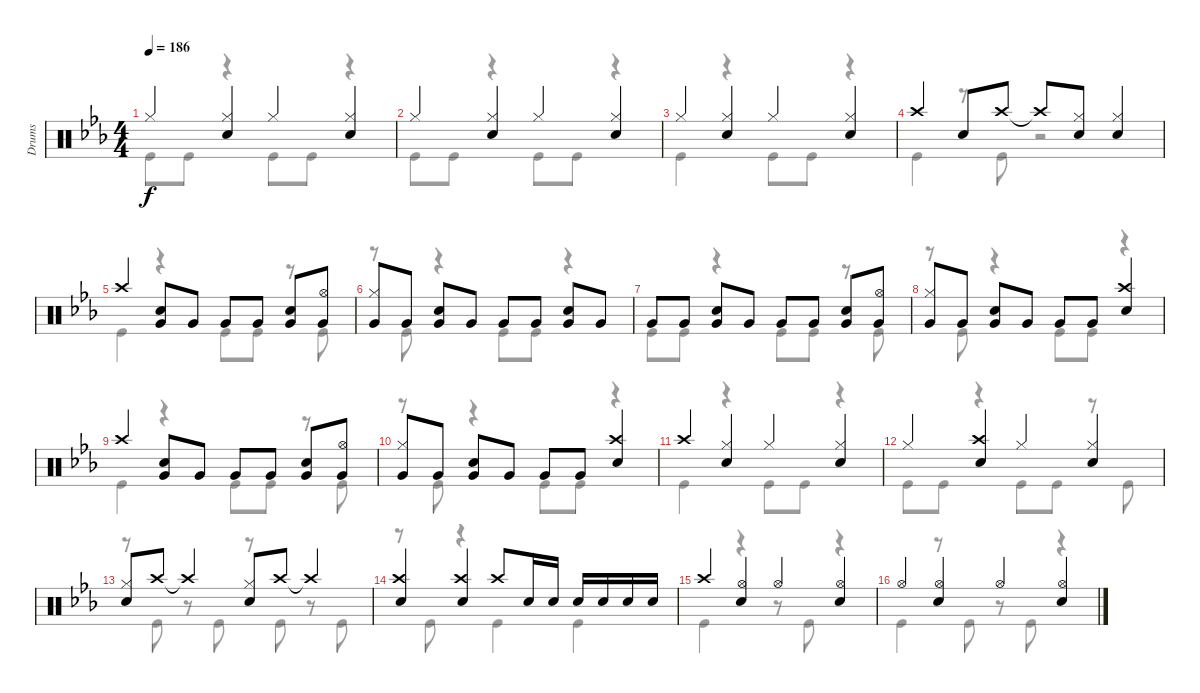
\track ("Drums" "Drums") {instrument percussion}
\staff {score}
\articulation defaults
\voice
\ts (4 4)
\tempo 186
\clef neutral
\ks eb "Hi-Hat (closed)".4{dy f beam Up}
("Hi-Hat (closed)" "Snare (hit) 2").4{beam Up} "Hi-Hat (closed)".4{beam Up} ("Hi-Hat (closed)" "Snare (hit) 2").4{beam Up} |
"Hi-Hat (closed)".4{beam Up} ("Hi-Hat (closed)" "Snare (hit) 2").4{beam Up} "Hi-Hat (closed)".4{beam Up} ("Hi-Hat (closed)" "Snare (hit) 2").4{beam Up} |
"Hi-Hat (closed)".4{beam Up} ("Hi-Hat (closed)" "Snare (hit) 2").4{beam Up} "Hi-Hat (closed)".4{beam Up} ("Hi-Hat (closed)" "Snare (hit) 2").4{beam Up} |
"Crash high (hit)".4{beam Up} "Snare (hit) 2".8{beam Up} "Crash high (hit)".8{beam Up} "Crash high (hit)"{t}.8{beam Up} ("Snare (hit) 2" "Hi-Hat (closed)").8{beam Up} ("Snare (hit) 2" "Hi-Hat (closed)").4{beam Up} |
"Crash high (hit)".4{beam Up} ("Snare (hit) 2" "Very Low Tom (hit)").8{beam Up} "Very Low Tom (hit)".8{beam Up} "Very Low Tom (hit)".8{beam Up} "Very Low Tom (hit)".8{beam Up} ("Very Low Tom (hit)" "Snare (hit) 2").8{beam Up} ("Very Low Tom (hit)" "Hi-Hat (open)").8{beam Up} |
("Hi-Hat (closed)" "Very Low Tom (hit)").8{beam Up} "Very Low Tom (hit)".8{beam Up} ("Very Low Tom (hit)" "Snare (hit) 2").8{beam Up} "Very Low Tom (hit)".8{beam Up} "Very Low Tom (hit)".8{beam Up} "Very Low Tom (hit)".8{beam Up} ("Very Low Tom (hit)" "Snare (hit) 2").8{beam Up} "Very Low Tom (hit)".8{beam Up} |
"Very Low Tom (hit)".8{beam Up} "Very Low Tom (hit)".8{beam Up} ("Very Low Tom (hit)" "Snare (hit) 2").8{beam Up} "Very Low Tom (hit)".8{beam Up} "Very Low Tom (hit)".8{beam Up} "Very Low Tom (hit)".8{beam Up} ("Very Low Tom (hit)" "Snare (hit) 2").8{beam Up} ("Hi-Hat (open)" "Very Low Tom (hit)").8{beam Up} |
("Hi-Hat (closed)" "Very Low Tom (hit)").8{beam Up} "Very Low Tom (hit)".8{beam Up} ("Very Low Tom (hit)" "Snare (hit) 2").8{beam Up} "Very Low Tom (hit)".8{beam Up} "Very Low Tom (hit)".8{beam Up} "Very Low Tom (hit)".8{beam Up} ("Snare (hit) 2" "Crash high (hit)").4{beam Up} |
"Crash high (hit)".4{beam Up} ("Snare (hit) 2" "Very Low Tom (hit)").8{beam Up} "Very Low Tom (hit)".8{beam Up} "Very Low Tom (hit)".8{beam Up} "Very Low Tom (hit)".8{beam Up} ("Very Low Tom (hit)" "Snare (hit) 2").8{beam Up} ("Hi-Hat (open)" "Very Low Tom (hit)").8{beam Up} |
("Hi-Hat (closed)" "Very Low Tom (hit)").8{beam Up} "Very Low Tom (hit)".8{beam Up} ("Very Low Tom (hit)" "Snare (hit) 2").8{beam Up} "Very Low Tom (hit)".8{beam Up} "Very Low Tom (hit)".8{beam Up} "Very Low Tom (hit)".8{beam Up} ("Snare (hit) 2" "Crash high (hit)").4{beam Up} |
"Crash high (hit)".4{beam Up} ("Hi-Hat (closed)" "Snare (hit) 2").4{beam Up} "Hi-Hat (closed)".4{beam Up} ("Hi-Hat (closed)" "Snare (hit) 2").4{beam Up} |
"Hi-Hat (closed)".4{beam Up} ("Crash high (hit)" "Snare (hit) 2").4{beam Up} "Hi-Hat (closed)".4{beam Up} ("Hi-Hat (closed)" "Snare (hit) 2").4{beam Up} |
("Hi-Hat (closed)" "Snare (hit) 2").8{beam Up} "Crash high (hit)".8{beam Up} "Crash high (hit)"{t}.4{beam Up} ("Hi-Hat (closed)" "Snare (hit) 2").8{beam Up} "Crash high (hit)".8{beam Up} "Crash high (hit)"{t}.4{beam Up} |
("Crash high (hit)" "Snare (hit) 2").4{beam Up} ("Snare (hit) 2" "Crash high (hit)").4{beam Up} "Crash high (hit)".8{beam Up} "Snare (hit) 2".16{beam Up} "Snare (hit) 2".16{beam Up} "Snare (hit) 2".16{beam Up} "Snare (hit) 2".16{beam Up} "Snare (hit) 2".16{beam Up} "Snare (hit) 2".16{beam Up} |
"Crash high (hit)".4{beam Up} ("Hi-Hat (open)" "Snare (hit) 2").4{beam Up} "Hi-Hat (open)".4{beam Up} ("Hi-Hat (open)" "Snare (hit) 2").4{beam Up} |
"Hi-Hat (open)".4{beam Up} ("Snare (hit) 2" "Hi-Hat (open)").4{beam Up} "Hi-Hat (open)".4{beam Up} ("Hi-Hat (open)" "Snare (hit) 2").4{beam Up}
\voice
\clef neutral
\ottava regular
\simile none
\ks eb "Kick (hit)".8{dy f} "Kick (hit)".8
r.4 "Kick (hit)".8 "Kick (hit)".8 r.4 |
"Kick (hit)".8 "Kick (hit)".8 r.4 "Kick (hit)".8 "Kick (hit)".8 r.4 |
"Kick (hit)".4 r.4 "Kick (hit)".8 "Kick (hit)".8 r.4 |
"Kick (hit)".4 r.8 "Kick (hit)".8 r.2 |
"Kick (hit)".4 r.4 "Kick (hit)".8 "Kick (hit)".8 r.8 "Kick (hit)".8 |
r.8 "Kick (hit)".8 r.4 "Kick (hit)".8 "Kick (hit)".8 r.4 |
"Kick (hit)".8 "Kick (hit)".8 r.4 "Kick (hit)".8 "Kick (hit)".8 r.8 "Kick (hit)".8 |
r.8 "Kick (hit)".8 r.4 "Kick (hit)".8 "Kick (hit)".8 r.4 |
"Kick (hit)".4 r.4 "Kick (hit)".8 "Kick (hit)".8 r.8 "Kick (hit)".8 |
r.8 "Kick (hit)".8 r.4 "Kick (hit)".8 "Kick (hit)".8 r.4 |
"Kick (hit)".4 r.4 "Kick (hit)".8 "Kick (hit)".8 r.4 |
"Kick (hit)".8 "Kick (hit)".8 r.4 "Kick (hit)".8 "Kick (hit)".8 r.8 "Kick (hit)".8 |
r.8 "Kick (hit)".8 r.8 "Kick (hit)".8 r.8 "Kick (hit)".8 r.8 "Kick (hit)".8 |
r.8 "Kick (hit)".8 r.4 "Kick (hit)".4 "Kick (hit)".4 |
"Kick (hit)".4 r.4 r.8 "Kick (hit)".8 r.4 |
"Kick (hit)".4 r.8 "Kick (hit)".8 r.8 "Kick (hit)".8 r.4
